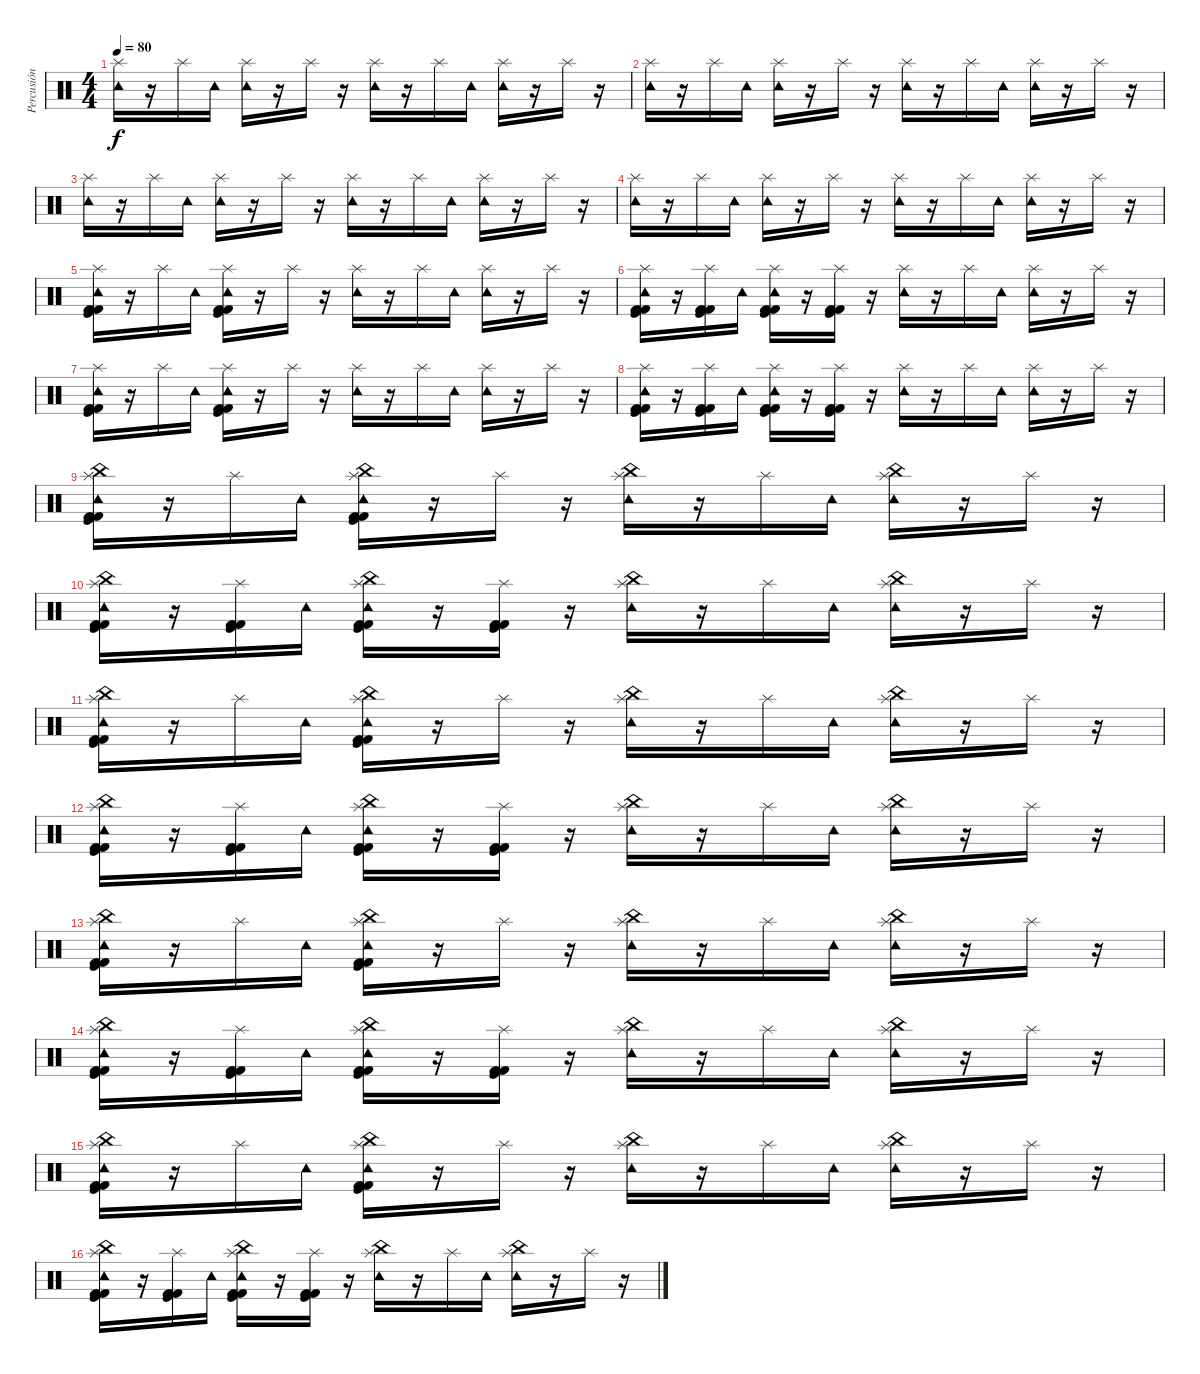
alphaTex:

\track ("Percusión" "Percusión") {instrument percussion}
\staff {score}
\articulation defaults
\ts (4 4)
\tempo 80
\clef neutral
\ks c
("Splash (hit)" "Tambourine (hit)").16{dy f} r.16 "Splash (hit)".16 "Tambourine (hit)".16 ("Splash (hit)" "Tambourine (hit)").16 r.16 "Splash (hit)".16 r.16 ("Splash (hit)" "Tambourine (hit)").16 r.16 "Splash (hit)".16 "Tambourine (hit)".16 ("Splash (hit)" "Tambourine (hit)").16 r.16 "Splash (hit)".16 r.16 |
("Splash (hit)" "Tambourine (hit)").16 r.16 "Splash (hit)".16 "Tambourine (hit)".16 ("Splash (hit)" "Tambourine (hit)").16 r.16 "Splash (hit)".16 r.16 ("Splash (hit)" "Tambourine (hit)").16 r.16 "Splash (hit)".16 "Tambourine (hit)".16 ("Splash (hit)" "Tambourine (hit)").16 r.16 "Splash (hit)".16 r.16 |
("Splash (hit)" "Tambourine (hit)").16 r.16 "Splash (hit)".16 "Tambourine (hit)".16 ("Splash (hit)" "Tambourine (hit)").16 r.16 "Splash (hit)".16 r.16 ("Splash (hit)" "Tambourine (hit)").16 r.16 "Splash (hit)".16 "Tambourine (hit)".16 ("Splash (hit)" "Tambourine (hit)").16 r.16 "Splash (hit)".16 r.16 |
("Splash (hit)" "Tambourine (hit)").16 r.16 "Splash (hit)".16 "Tambourine (hit)".16 ("Splash (hit)" "Tambourine (hit)").16 r.16 "Splash (hit)".16 r.16 ("Splash (hit)" "Tambourine (hit)").16 r.16 "Splash (hit)".16 "Tambourine (hit)".16 ("Splash (hit)" "Tambourine (hit)").16 r.16 "Splash (hit)".16 r.16 |
("Splash (hit)" "Tambourine (hit)" "Kick (hit)" "Kick (hit) 2" "Kick (hit) 2").16 r.16 "Splash (hit)".16 "Tambourine (hit)".16 ("Splash (hit)" "Tambourine (hit)" "Kick (hit)" "Kick (hit) 2" "Kick (hit) 2").16 r.16 "Splash (hit)".16 r.16 ("Splash (hit)" "Tambourine (hit)").16 r.16 "Splash (hit)".16 "Tambourine (hit)".16 ("Splash (hit)" "Tambourine (hit)").16 r.16 "Splash (hit)".16 r.16 |
("Splash (hit)" "Tambourine (hit)" "Kick (hit)" "Kick (hit) 2" "Kick (hit) 2").16 r.16 ("Splash (hit)" "Kick (hit)" "Kick (hit) 2" "Kick (hit) 2").16 "Tambourine (hit)".16 ("Splash (hit)" "Tambourine (hit)" "Kick (hit)" "Kick (hit) 2" "Kick (hit) 2").16 r.16 ("Splash (hit)" "Kick (hit)" "Kick (hit) 2" "Kick (hit) 2").16 r.16 ("Splash (hit)" "Tambourine (hit)").16 r.16 "Splash (hit)".16 "Tambourine (hit)".16 ("Splash (hit)" "Tambourine (hit)").16 r.16 "Splash (hit)".16 r.16 |
("Splash (hit)" "Tambourine (hit)" "Kick (hit)" "Kick (hit) 2" "Kick (hit) 2").16 r.16 "Splash (hit)".16 "Tambourine (hit)".16 ("Splash (hit)" "Tambourine (hit)" "Kick (hit)" "Kick (hit) 2" "Kick (hit) 2").16 r.16 "Splash (hit)".16 r.16 ("Splash (hit)" "Tambourine (hit)").16 r.16 "Splash (hit)".16 "Tambourine (hit)".16 ("Splash (hit)" "Tambourine (hit)").16 r.16 "Splash (hit)".16 r.16 |
("Splash (hit)" "Tambourine (hit)" "Kick (hit)" "Kick (hit) 2" "Kick (hit) 2").16 r.16 ("Splash (hit)" "Kick (hit)" "Kick (hit) 2" "Kick (hit) 2").16 "Tambourine (hit)".16 ("Splash (hit)" "Tambourine (hit)" "Kick (hit)" "Kick (hit) 2" "Kick (hit) 2").16 r.16 ("Splash (hit)" "Kick (hit)" "Kick (hit) 2" "Kick (hit) 2").16 r.16 ("Splash (hit)" "Tambourine (hit)").16 r.16 "Splash (hit)".16 "Tambourine (hit)".16 ("Splash (hit)" "Tambourine (hit)").16 r.16 "Splash (hit)".16 r.16 |
("Splash (hit)" "Tambourine (hit)" "China (hit)" "Kick (hit)" "Kick (hit) 2" "Kick (hit) 2").16 r.16 "Splash (hit)".16 "Tambourine (hit)".16 ("Splash (hit)" "Tambourine (hit)" "China (hit)" "Kick (hit)" "Kick (hit) 2" "Kick (hit) 2").16 r.16 "Splash (hit)".16 r.16 ("Splash (hit)" "Tambourine (hit)" "China (hit)").16 r.16 "Splash (hit)".16 "Tambourine (hit)".16 ("Splash (hit)" "Tambourine (hit)" "China (hit)").16 r.16 "Splash (hit)".16 r.16 |
("Splash (hit)" "Tambourine (hit)" "China (hit)" "Kick (hit)" "Kick (hit) 2" "Kick (hit) 2").16 r.16 ("Splash (hit)" "Kick (hit)" "Kick (hit) 2" "Kick (hit) 2").16 "Tambourine (hit)".16 ("Splash (hit)" "Tambourine (hit)" "China (hit)" "Kick (hit)" "Kick (hit) 2" "Kick (hit) 2").16 r.16 ("Splash (hit)" "Kick (hit)" "Kick (hit) 2" "Kick (hit) 2").16 r.16 ("Splash (hit)" "Tambourine (hit)" "China (hit)").16 r.16 "Splash (hit)".16 "Tambourine (hit)".16 ("Splash (hit)" "Tambourine (hit)" "China (hit)").16 r.16 "Splash (hit)".16 r.16 |
("Splash (hit)" "Tambourine (hit)" "China (hit)" "Kick (hit)" "Kick (hit) 2" "Kick (hit) 2").16 r.16 "Splash (hit)".16 "Tambourine (hit)".16 ("Splash (hit)" "Tambourine (hit)" "China (hit)" "Kick (hit)" "Kick (hit) 2" "Kick (hit) 2").16 r.16 "Splash (hit)".16 r.16 ("Splash (hit)" "Tambourine (hit)" "China (hit)").16 r.16 "Splash (hit)".16 "Tambourine (hit)".16 ("Splash (hit)" "Tambourine (hit)" "China (hit)").16 r.16 "Splash (hit)".16 r.16 |
("Splash (hit)" "Tambourine (hit)" "China (hit)" "Kick (hit)" "Kick (hit) 2" "Kick (hit) 2").16 r.16 ("Splash (hit)" "Kick (hit)" "Kick (hit) 2" "Kick (hit) 2").16 "Tambourine (hit)".16 ("Splash (hit)" "Tambourine (hit)" "China (hit)" "Kick (hit)" "Kick (hit) 2" "Kick (hit) 2").16 r.16 ("Splash (hit)" "Kick (hit)" "Kick (hit) 2" "Kick (hit) 2").16 r.16 ("Splash (hit)" "Tambourine (hit)" "China (hit)").16 r.16 "Splash (hit)".16 "Tambourine (hit)".16 ("Splash (hit)" "Tambourine (hit)" "China (hit)").16 r.16 "Splash (hit)".16 r.16 |
("Splash (hit)" "Tambourine (hit)" "China (hit)" "Kick (hit)" "Kick (hit) 2" "Kick (hit) 2").16 r.16 "Splash (hit)".16 "Tambourine (hit)".16 ("Splash (hit)" "Tambourine (hit)" "China (hit)" "Kick (hit)" "Kick (hit) 2" "Kick (hit) 2").16 r.16 "Splash (hit)".16 r.16 ("Splash (hit)" "Tambourine (hit)" "China (hit)").16 r.16 "Splash (hit)".16 "Tambourine (hit)".16 ("Splash (hit)" "Tambourine (hit)" "China (hit)").16 r.16 "Splash (hit)".16 r.16 |
("Splash (hit)" "Tambourine (hit)" "China (hit)" "Kick (hit)" "Kick (hit) 2" "Kick (hit) 2").16 r.16 ("Splash (hit)" "Kick (hit)" "Kick (hit) 2" "Kick (hit) 2").16 "Tambourine (hit)".16 ("Splash (hit)" "Tambourine (hit)" "China (hit)" "Kick (hit)" "Kick (hit) 2" "Kick (hit) 2").16 r.16 ("Splash (hit)" "Kick (hit)" "Kick (hit) 2" "Kick (hit) 2").16 r.16 ("Splash (hit)" "Tambourine (hit)" "China (hit)").16 r.16 "Splash (hit)".16 "Tambourine (hit)".16 ("Splash (hit)" "Tambourine (hit)" "China (hit)").16 r.16 "Splash (hit)".16 r.16 |
("Splash (hit)" "Tambourine (hit)" "China (hit)" "Kick (hit)" "Kick (hit) 2" "Kick (hit) 2").16 r.16 "Splash (hit)".16 "Tambourine (hit)".16 ("Splash (hit)" "Tambourine (hit)" "China (hit)" "Kick (hit)" "Kick (hit) 2" "Kick (hit) 2").16 r.16 "Splash (hit)".16 r.16 ("Splash (hit)" "Tambourine (hit)" "China (hit)").16 r.16 "Splash (hit)".16 "Tambourine (hit)".16 ("Splash (hit)" "Tambourine (hit)" "China (hit)").16 r.16 "Splash (hit)".16 r.16 |
("Splash (hit)" "Tambourine (hit)" "China (hit)" "Kick (hit)" "Kick (hit) 2" "Kick (hit) 2").16 r.16 ("Splash (hit)" "Kick (hit)" "Kick (hit) 2" "Kick (hit) 2").16 "Tambourine (hit)".16 ("Splash (hit)" "Tambourine (hit)" "China (hit)" "Kick (hit)" "Kick (hit) 2" "Kick (hit) 2").16 r.16 ("Splash (hit)" "Kick (hit)" "Kick (hit) 2" "Kick (hit) 2").16 r.16 ("Splash (hit)" "Tambourine (hit)" "China (hit)").16 r.16 "Splash (hit)".16 "Tambourine (hit)".16 ("Splash (hit)" "Tambourine (hit)" "China (hit)").16 r.16 "Splash (hit)".16 r.16
